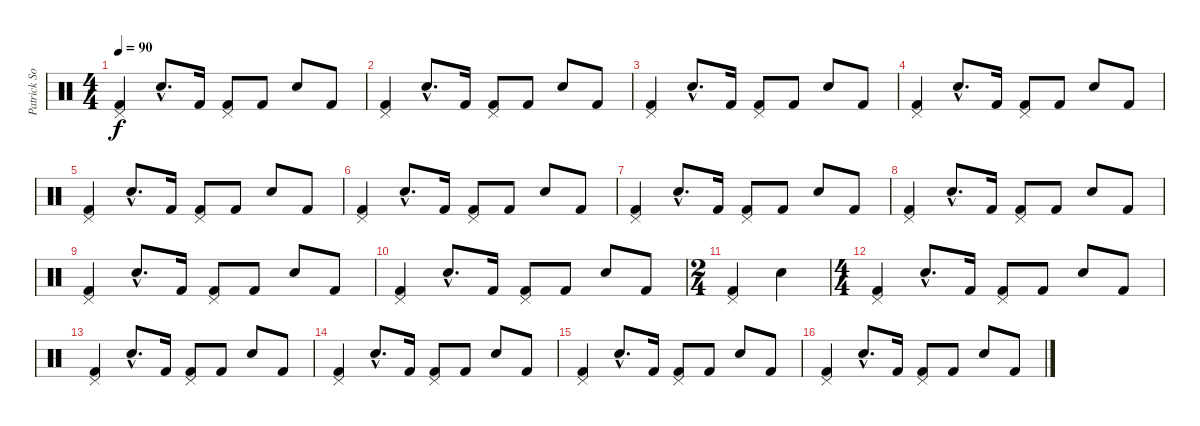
\track ("Patrick Soria" "Patrick So") {instrument percussion}
\staff {score}
\articulation defaults
\ts (4 4)
\tempo 90
\clef neutral
\ks c
("Pedal Hi-Hat (hit)" "Kick (hit) 2").4{dy f} "Snare (hit) 2"{hac}.8{d} "Kick (hit) 2".16 ("Pedal Hi-Hat (hit)" "Kick (hit) 2").8 "Kick (hit) 2".8 "Snare (hit) 2".8 "Kick (hit) 2".8 |
("Pedal Hi-Hat (hit)" "Kick (hit) 2").4 "Snare (hit) 2"{hac}.8{d} "Kick (hit) 2".16 ("Pedal Hi-Hat (hit)" "Kick (hit) 2").8 "Kick (hit) 2".8 "Snare (hit) 2".8 "Kick (hit) 2".8 |
("Pedal Hi-Hat (hit)" "Kick (hit) 2").4 "Snare (hit) 2"{hac}.8{d} "Kick (hit) 2".16 ("Pedal Hi-Hat (hit)" "Kick (hit) 2").8 "Kick (hit) 2".8 "Snare (hit) 2".8 "Kick (hit) 2".8 |
("Pedal Hi-Hat (hit)" "Kick (hit) 2").4 "Snare (hit) 2"{hac}.8{d} "Kick (hit) 2".16 ("Pedal Hi-Hat (hit)" "Kick (hit) 2").8 "Kick (hit) 2".8 "Snare (hit) 2".8 "Kick (hit) 2".8 |
("Pedal Hi-Hat (hit)" "Kick (hit) 2").4 "Snare (hit) 2"{hac}.8{d} "Kick (hit) 2".16 ("Pedal Hi-Hat (hit)" "Kick (hit) 2").8 "Kick (hit) 2".8 "Snare (hit) 2".8 "Kick (hit) 2".8 |
("Pedal Hi-Hat (hit)" "Kick (hit) 2").4 "Snare (hit) 2"{hac}.8{d} "Kick (hit) 2".16 ("Pedal Hi-Hat (hit)" "Kick (hit) 2").8 "Kick (hit) 2".8 "Snare (hit) 2".8 "Kick (hit) 2".8 |
("Pedal Hi-Hat (hit)" "Kick (hit) 2").4 "Snare (hit) 2"{hac}.8{d} "Kick (hit) 2".16 ("Pedal Hi-Hat (hit)" "Kick (hit) 2").8 "Kick (hit) 2".8 "Snare (hit) 2".8 "Kick (hit) 2".8 |
("Pedal Hi-Hat (hit)" "Kick (hit) 2").4 "Snare (hit) 2"{hac}.8{d} "Kick (hit) 2".16 ("Pedal Hi-Hat (hit)" "Kick (hit) 2").8 "Kick (hit) 2".8 "Snare (hit) 2".8 "Kick (hit) 2".8 |
("Pedal Hi-Hat (hit)" "Kick (hit) 2").4 "Snare (hit) 2"{hac}.8{d} "Kick (hit) 2".16 ("Pedal Hi-Hat (hit)" "Kick (hit) 2").8 "Kick (hit) 2".8 "Snare (hit) 2".8 "Kick (hit) 2".8 |
("Pedal Hi-Hat (hit)" "Kick (hit) 2").4 "Snare (hit) 2"{hac}.8{d} "Kick (hit) 2".16 ("Pedal Hi-Hat (hit)" "Kick (hit) 2").8 "Kick (hit) 2".8 "Snare (hit) 2".8 "Kick (hit) 2".8 |
\ts (2 4)
("Pedal Hi-Hat (hit)" "Kick (hit) 2").4 "Snare (hit) 2".4 |
\ts (4 4)
("Pedal Hi-Hat (hit)" "Kick (hit) 2").4 "Snare (hit) 2"{hac}.8{d} "Kick (hit) 2".16 ("Pedal Hi-Hat (hit)" "Kick (hit) 2").8 "Kick (hit) 2".8 "Snare (hit) 2".8 "Kick (hit) 2".8 |
("Pedal Hi-Hat (hit)" "Kick (hit) 2").4 "Snare (hit) 2"{hac}.8{d} "Kick (hit) 2".16 ("Pedal Hi-Hat (hit)" "Kick (hit) 2").8 "Kick (hit) 2".8 "Snare (hit) 2".8 "Kick (hit) 2".8 |
("Pedal Hi-Hat (hit)" "Kick (hit) 2").4 "Snare (hit) 2"{hac}.8{d} "Kick (hit) 2".16 ("Pedal Hi-Hat (hit)" "Kick (hit) 2").8 "Kick (hit) 2".8 "Snare (hit) 2".8 "Kick (hit) 2".8 |
("Pedal Hi-Hat (hit)" "Kick (hit) 2").4 "Snare (hit) 2"{hac}.8{d} "Kick (hit) 2".16 ("Pedal Hi-Hat (hit)" "Kick (hit) 2").8 "Kick (hit) 2".8 "Snare (hit) 2".8 "Kick (hit) 2".8 |
("Pedal Hi-Hat (hit)" "Kick (hit) 2").4 "Snare (hit) 2"{hac}.8{d} "Kick (hit) 2".16 ("Pedal Hi-Hat (hit)" "Kick (hit) 2").8 "Kick (hit) 2".8 "Snare (hit) 2".8 "Kick (hit) 2".8
